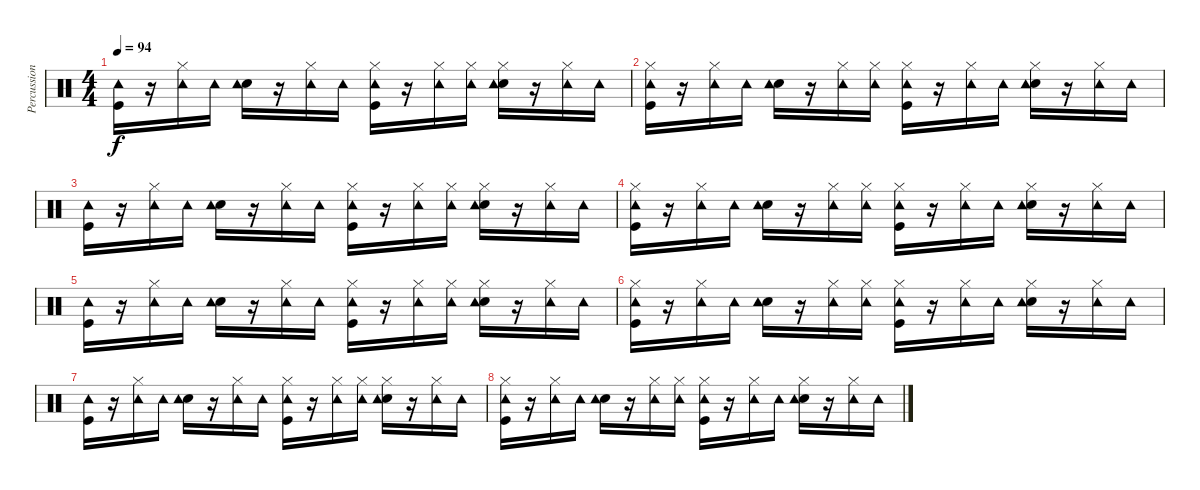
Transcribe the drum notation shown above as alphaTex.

\track ("Percussions/From Midi" "Percussion") {instrument percussion}
\staff {score}
\articulation defaults
\ts (4 4)
\tempo 94
\clef neutral
\ks c
("Kick (hit)" "Tambourine (hit)").16{dy f} r.16 ("Hi-Hat (closed)" "Tambourine (hit)").16 "Tambourine (hit)".16 ("Electric Snare (hit)" "Tambourine (hit)").16 r.16 ("Hi-Hat (closed)" "Tambourine (hit)").16 "Tambourine (hit)".16 ("Kick (hit)" "Hi-Hat (closed)" "Tambourine (hit)").16 r.16 ("Hi-Hat (closed)" "Tambourine (hit)").16 ("Hi-Hat (closed)" "Tambourine (hit)").16 ("Electric Snare (hit)" "Hi-Hat (closed)" "Tambourine (hit)").16 r.16 ("Hi-Hat (closed)" "Tambourine (hit)").16 "Tambourine (hit)".16 |
("Kick (hit)" "Hi-Hat (closed)" "Tambourine (hit)").16 r.16 ("Hi-Hat (closed)" "Tambourine (hit)").16 "Tambourine (hit)".16 ("Electric Snare (hit)" "Tambourine (hit)").16 r.16 ("Hi-Hat (closed)" "Tambourine (hit)").16 ("Hi-Hat (closed)" "Tambourine (hit)").16 ("Kick (hit)" "Hi-Hat (closed)" "Tambourine (hit)").16 r.16 ("Hi-Hat (closed)" "Tambourine (hit)").16 "Tambourine (hit)".16 ("Electric Snare (hit)" "Hi-Hat (closed)" "Tambourine (hit)").16 r.16 ("Hi-Hat (closed)" "Tambourine (hit)").16 "Tambourine (hit)".16 |
("Kick (hit)" "Tambourine (hit)").16 r.16 ("Hi-Hat (closed)" "Tambourine (hit)").16 "Tambourine (hit)".16 ("Electric Snare (hit)" "Tambourine (hit)").16 r.16 ("Hi-Hat (closed)" "Tambourine (hit)").16 "Tambourine (hit)".16 ("Kick (hit)" "Hi-Hat (closed)" "Tambourine (hit)").16 r.16 ("Hi-Hat (closed)" "Tambourine (hit)").16 ("Hi-Hat (closed)" "Tambourine (hit)").16 ("Electric Snare (hit)" "Hi-Hat (closed)" "Tambourine (hit)").16 r.16 ("Hi-Hat (closed)" "Tambourine (hit)").16 "Tambourine (hit)".16 |
("Kick (hit)" "Hi-Hat (closed)" "Tambourine (hit)").16 r.16 ("Hi-Hat (closed)" "Tambourine (hit)").16 "Tambourine (hit)".16 ("Electric Snare (hit)" "Tambourine (hit)").16 r.16 ("Hi-Hat (closed)" "Tambourine (hit)").16 ("Hi-Hat (closed)" "Tambourine (hit)").16 ("Kick (hit)" "Hi-Hat (closed)" "Tambourine (hit)").16 r.16 ("Hi-Hat (closed)" "Tambourine (hit)").16 "Tambourine (hit)".16 ("Electric Snare (hit)" "Hi-Hat (closed)" "Tambourine (hit)").16 r.16 ("Hi-Hat (closed)" "Tambourine (hit)").16 "Tambourine (hit)".16 |
("Kick (hit)" "Tambourine (hit)").16 r.16 ("Hi-Hat (closed)" "Tambourine (hit)").16 "Tambourine (hit)".16 ("Electric Snare (hit)" "Tambourine (hit)").16 r.16 ("Hi-Hat (closed)" "Tambourine (hit)").16 "Tambourine (hit)".16 ("Kick (hit)" "Hi-Hat (closed)" "Tambourine (hit)").16 r.16 ("Hi-Hat (closed)" "Tambourine (hit)").16 ("Hi-Hat (closed)" "Tambourine (hit)").16 ("Electric Snare (hit)" "Hi-Hat (closed)" "Tambourine (hit)").16 r.16 ("Hi-Hat (closed)" "Tambourine (hit)").16 "Tambourine (hit)".16 |
("Kick (hit)" "Hi-Hat (closed)" "Tambourine (hit)").16 r.16 ("Hi-Hat (closed)" "Tambourine (hit)").16 "Tambourine (hit)".16 ("Electric Snare (hit)" "Tambourine (hit)").16 r.16 ("Hi-Hat (closed)" "Tambourine (hit)").16 ("Hi-Hat (closed)" "Tambourine (hit)").16 ("Kick (hit)" "Hi-Hat (closed)" "Tambourine (hit)").16 r.16 ("Hi-Hat (closed)" "Tambourine (hit)").16 "Tambourine (hit)".16 ("Electric Snare (hit)" "Hi-Hat (closed)" "Tambourine (hit)").16 r.16 ("Hi-Hat (closed)" "Tambourine (hit)").16 "Tambourine (hit)".16 |
("Kick (hit)" "Tambourine (hit)").16 r.16 ("Hi-Hat (closed)" "Tambourine (hit)").16 "Tambourine (hit)".16 ("Electric Snare (hit)" "Tambourine (hit)").16 r.16 ("Hi-Hat (closed)" "Tambourine (hit)").16 "Tambourine (hit)".16 ("Kick (hit)" "Hi-Hat (closed)" "Tambourine (hit)").16 r.16 ("Hi-Hat (closed)" "Tambourine (hit)").16 ("Hi-Hat (closed)" "Tambourine (hit)").16 ("Electric Snare (hit)" "Hi-Hat (closed)" "Tambourine (hit)").16 r.16 ("Hi-Hat (closed)" "Tambourine (hit)").16 "Tambourine (hit)".16 |
("Kick (hit)" "Hi-Hat (closed)" "Tambourine (hit)").16 r.16 ("Hi-Hat (closed)" "Tambourine (hit)").16 "Tambourine (hit)".16 ("Electric Snare (hit)" "Tambourine (hit)").16 r.16 ("Hi-Hat (closed)" "Tambourine (hit)").16 ("Hi-Hat (closed)" "Tambourine (hit)").16 ("Kick (hit)" "Hi-Hat (closed)" "Tambourine (hit)").16 r.16 ("Hi-Hat (closed)" "Tambourine (hit)").16 "Tambourine (hit)".16 ("Electric Snare (hit)" "Hi-Hat (closed)" "Tambourine (hit)").16 r.16 ("Hi-Hat (closed)" "Tambourine (hit)").16 "Tambourine (hit)".16
